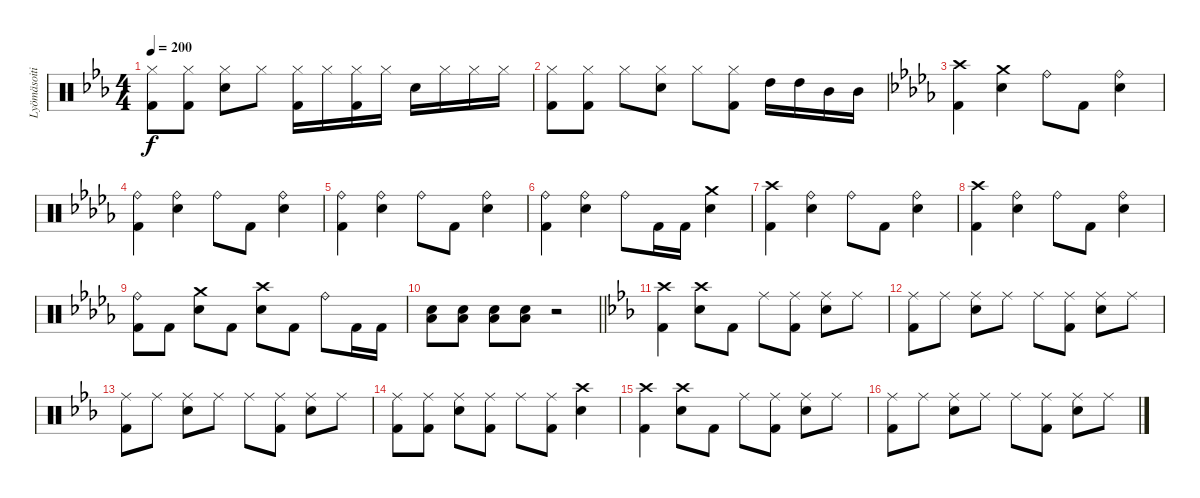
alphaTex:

\track ("Lyömäsoitin" "Lyömäsoiti") {instrument percussion}
\staff {score}
\articulation defaults
\ts (4 4)
\tempo 200
\clef neutral
\ks eb
("Hi-Hat (closed)" "Kick (hit) 2").8{dy f} ("Hi-Hat (closed)" "Kick (hit) 2").8 ("Hi-Hat (closed)" "Snare (hit) 2").8 "Hi-Hat (closed)".8 ("Hi-Hat (closed)" "Kick (hit) 2").16 "Hi-Hat (closed)".16 ("Hi-Hat (closed)" "Kick (hit) 2").16 "Hi-Hat (closed)".16 "Snare (hit) 2".16 "Hi-Hat (closed)".16 "Hi-Hat (closed)".16 "Hi-Hat (closed)".16 |
("Hi-Hat (closed)" "Kick (hit) 2").8 ("Hi-Hat (closed)" "Kick (hit) 2").8 "Hi-Hat (closed)".8 ("Hi-Hat (closed)" "Snare (hit) 2").8 "Hi-Hat (closed)".8 ("Hi-Hat (closed)" "Kick (hit) 2").8 "High Tom (hit)".16 "High Tom (hit)".16 "Mid Tom (hit)".16 "Mid Tom (hit)".16 |
\ks db
("Crash high (hit)" "Kick (hit) 2").4 ("Crash medium (hit)" "Snare (hit) 2").4 "Ride (bell)".8 "Kick (hit) 2".8 ("Ride (bell)" "Snare (hit) 2").4 |
("Ride (bell)" "Kick (hit) 2").4 ("Ride (bell)" "Snare (hit) 2").4 "Ride (bell)".8 "Kick (hit) 2".8 ("Ride (bell)" "Snare (hit) 2").4 |
("Ride (bell)" "Kick (hit) 2").4 ("Ride (bell)" "Snare (hit) 2").4 "Ride (bell)".8 "Kick (hit) 2".8 ("Ride (bell)" "Snare (hit) 2").4 |
("Ride (bell)" "Kick (hit) 2").4 ("Ride (bell)" "Snare (hit) 2").4 "Ride (bell)".8 "Kick (hit) 2".16 "Kick (hit) 2".16 ("Crash medium (hit)" "Snare (hit) 2").4 |
("Crash high (hit)" "Kick (hit) 2").4 ("Ride (bell)" "Snare (hit) 2").4 "Ride (bell)".8 "Kick (hit) 2".8 ("Ride (bell)" "Snare (hit) 2").4 |
("Crash high (hit)" "Kick (hit) 2").4 ("Ride (bell)" "Snare (hit) 2").4 "Ride (bell)".8 "Kick (hit) 2".8 ("Ride (bell)" "Snare (hit) 2").4 |
("Ride (bell)" "Kick (hit) 2").8 "Kick (hit) 2".8 ("Crash medium (hit)" "Snare (hit) 2").8 "Kick (hit) 2".8 ("Crash high (hit)" "Snare (hit) 2").8 "Kick (hit) 2".8 "Ride (bell)".8 "Kick (hit) 2".16 "Kick (hit) 2".16 |
\barLineRight lightlight
("Low Tom (hit)" "Snare (hit) 2").8 ("Low Tom (hit)" "Snare (hit) 2").8 ("Low Tom (hit)" "Snare (hit) 2").8 ("Low Tom (hit)" "Snare (hit) 2").8 r.2 |
\ks eb
("Crash high (hit)" "Kick (hit) 2").4 ("Crash high (hit)" "Snare (hit) 2").8 "Kick (hit) 2".8 "Ride (middle)".8 ("Ride (middle)" "Kick (hit) 2").8 ("Ride (middle)" "Snare (hit) 2").8 "Ride (middle)".8 |
("Ride (middle)" "Kick (hit) 2").8 "Ride (middle)".8 ("Ride (middle)" "Snare (hit) 2").8 "Ride (middle)".8 "Ride (middle)".8 ("Ride (middle)" "Kick (hit) 2").8 ("Ride (middle)" "Snare (hit) 2").8 "Ride (middle)".8 |
("Ride (middle)" "Kick (hit) 2").8 "Ride (middle)".8 ("Ride (middle)" "Snare (hit) 2").8 "Ride (middle)".8 "Ride (middle)".8 ("Ride (middle)" "Kick (hit) 2").8 ("Ride (middle)" "Snare (hit) 2").8 "Ride (middle)".8 |
("Ride (middle)" "Kick (hit) 2").8 ("Ride (middle)" "Kick (hit) 2").8 ("Ride (middle)" "Snare (hit) 2").8 ("Ride (middle)" "Kick (hit) 2").8 "Ride (middle)".8 ("Ride (middle)" "Kick (hit) 2").8 ("Crash high (hit)" "Snare (hit) 2").4 |
("Crash high (hit)" "Kick (hit) 2").4 ("Crash high (hit)" "Snare (hit) 2").8 "Kick (hit) 2".8 "Ride (middle)".8 ("Ride (middle)" "Kick (hit) 2").8 ("Ride (middle)" "Snare (hit) 2").8 "Ride (middle)".8 |
("Ride (middle)" "Kick (hit) 2").8 "Ride (middle)".8 ("Ride (middle)" "Snare (hit) 2").8 "Ride (middle)".8 "Ride (middle)".8 ("Ride (middle)" "Kick (hit) 2").8 ("Ride (middle)" "Snare (hit) 2").8 "Ride (middle)".8
